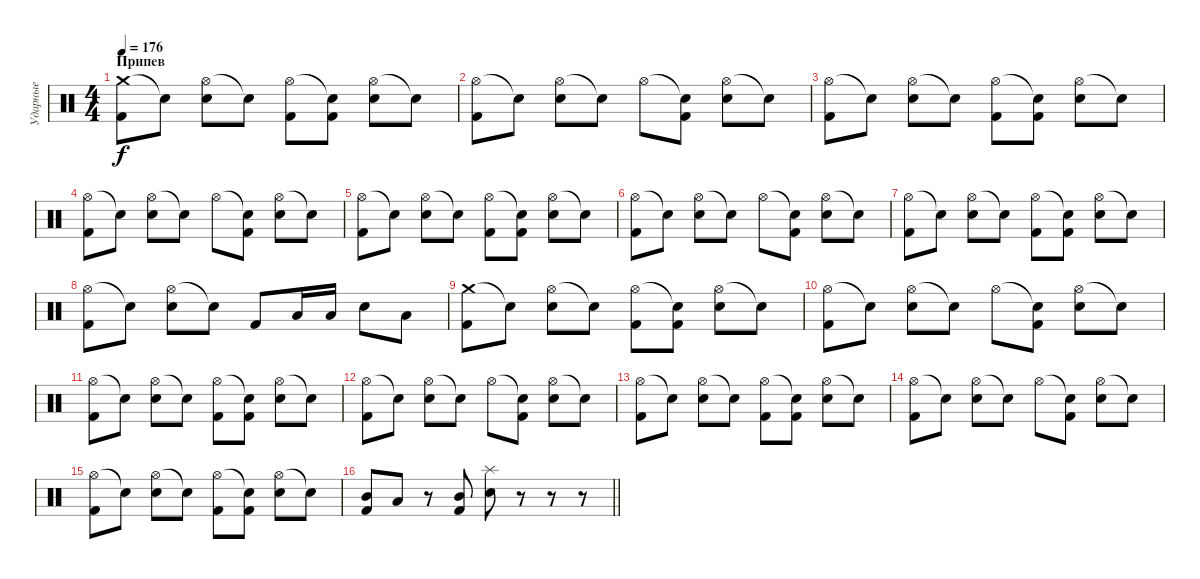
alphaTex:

\track ("Ударные" "Ударные") {instrument percussion}
\staff {score}
\articulation defaults
\ts (4 4)
\section ("" "Припев")
\tempo 176
\clef neutral
\ks c
("Crash medium (hit)" "Kick (hit) 2").8{dy f} "Snare (hit)"{t}.8 ("Hi-Hat (open)" "Snare (hit) 2").8 "Snare (hit)"{t}.8 ("Hi-Hat (open)" "Kick (hit) 2").8 ("Snare (hit)"{t} "Kick (hit) 2").8 ("Hi-Hat (open)" "Snare (hit) 2").8 "Snare (hit)"{t}.8 |
("Hi-Hat (open)" "Kick (hit) 2").8 "Snare (hit)"{t}.8 ("Hi-Hat (open)" "Snare (hit) 2").8 "Snare (hit)"{t}.8 "Hi-Hat (open)".8 ("Snare (hit)"{t} "Kick (hit) 2").8 ("Hi-Hat (open)" "Snare (hit) 2").8 "Snare (hit)"{t}.8 |
("Hi-Hat (open)" "Kick (hit) 2").8 "Snare (hit)"{t}.8 ("Hi-Hat (open)" "Snare (hit) 2").8 "Snare (hit)"{t}.8 ("Hi-Hat (open)" "Kick (hit) 2").8 ("Snare (hit)"{t} "Kick (hit) 2").8 ("Hi-Hat (open)" "Snare (hit) 2").8 "Snare (hit)"{t}.8 |
("Hi-Hat (open)" "Kick (hit) 2").8 "Snare (hit)"{t}.8 ("Hi-Hat (open)" "Snare (hit) 2").8 "Snare (hit)"{t}.8 "Hi-Hat (open)".8 ("Snare (hit)"{t} "Kick (hit) 2").8 ("Hi-Hat (open)" "Snare (hit) 2").8 "Snare (hit)"{t}.8 |
("Hi-Hat (open)" "Kick (hit) 2").8 "Snare (hit)"{t}.8 ("Hi-Hat (open)" "Snare (hit) 2").8 "Snare (hit)"{t}.8 ("Hi-Hat (open)" "Kick (hit) 2").8 ("Snare (hit)"{t} "Kick (hit) 2").8 ("Hi-Hat (open)" "Snare (hit) 2").8 "Snare (hit)"{t}.8 |
("Hi-Hat (open)" "Kick (hit) 2").8 "Snare (hit)"{t}.8 ("Hi-Hat (open)" "Snare (hit) 2").8 "Snare (hit)"{t}.8 "Hi-Hat (open)".8 ("Snare (hit)"{t} "Kick (hit) 2").8 ("Hi-Hat (open)" "Snare (hit) 2").8 "Snare (hit)"{t}.8 |
("Hi-Hat (open)" "Kick (hit) 2").8 "Snare (hit)"{t}.8 ("Hi-Hat (open)" "Snare (hit) 2").8 "Snare (hit)"{t}.8 ("Hi-Hat (open)" "Kick (hit) 2").8 ("Snare (hit)"{t} "Kick (hit) 2").8 ("Hi-Hat (open)" "Snare (hit) 2").8 "Snare (hit)"{t}.8 |
("Hi-Hat (open)" "Kick (hit) 2").8 "Snare (hit)"{t}.8 ("Hi-Hat (open)" "Snare (hit) 2").8 "Snare (hit)"{t}.8 "Kick (hit) 2".8 "Low Tom (hit)".16 "Low Tom (hit)".16 "Snare (hit) 2".8 "Low Floor Tom (hit)".8 |
("Crash medium (hit)" "Kick (hit) 2").8 "Snare (hit)"{t}.8 ("Hi-Hat (open)" "Snare (hit) 2").8 "Snare (hit)"{t}.8 ("Hi-Hat (open)" "Kick (hit) 2").8 ("Snare (hit)"{t} "Kick (hit) 2").8 ("Hi-Hat (open)" "Snare (hit) 2").8 "Snare (hit)"{t}.8 |
("Hi-Hat (open)" "Kick (hit) 2").8 "Snare (hit)"{t}.8 ("Hi-Hat (open)" "Snare (hit) 2").8 "Snare (hit)"{t}.8 "Hi-Hat (open)".8 ("Snare (hit)"{t} "Kick (hit) 2").8 ("Hi-Hat (open)" "Snare (hit) 2").8 "Snare (hit)"{t}.8 |
("Hi-Hat (open)" "Kick (hit) 2").8 "Snare (hit)"{t}.8 ("Hi-Hat (open)" "Snare (hit) 2").8 "Snare (hit)"{t}.8 ("Hi-Hat (open)" "Kick (hit) 2").8 ("Snare (hit)"{t} "Kick (hit) 2").8 ("Hi-Hat (open)" "Snare (hit) 2").8 "Snare (hit)"{t}.8 |
("Hi-Hat (open)" "Kick (hit) 2").8 "Snare (hit)"{t}.8 ("Hi-Hat (open)" "Snare (hit) 2").8 "Snare (hit)"{t}.8 "Hi-Hat (open)".8 ("Snare (hit)"{t} "Kick (hit) 2").8 ("Hi-Hat (open)" "Snare (hit) 2").8 "Snare (hit)"{t}.8 |
("Hi-Hat (open)" "Kick (hit) 2").8 "Snare (hit)"{t}.8 ("Hi-Hat (open)" "Snare (hit) 2").8 "Snare (hit)"{t}.8 ("Hi-Hat (open)" "Kick (hit) 2").8 ("Snare (hit)"{t} "Kick (hit) 2").8 ("Hi-Hat (open)" "Snare (hit) 2").8 "Snare (hit)"{t}.8 |
("Hi-Hat (open)" "Kick (hit) 2").8 "Snare (hit)"{t}.8 ("Hi-Hat (open)" "Snare (hit) 2").8 "Snare (hit)"{t}.8 "Hi-Hat (open)".8 ("Snare (hit)"{t} "Kick (hit) 2").8 ("Hi-Hat (open)" "Snare (hit) 2").8 "Snare (hit)"{t}.8 |
("Hi-Hat (open)" "Kick (hit) 2").8 "Snare (hit)"{t}.8 ("Hi-Hat (open)" "Snare (hit) 2").8 "Snare (hit)"{t}.8 ("Hi-Hat (open)" "Kick (hit) 2").8 ("Snare (hit)"{t} "Kick (hit) 2").8 ("Hi-Hat (open)" "Snare (hit) 2").8 "Snare (hit)"{t}.8 |
\barLineRight lightlight
("Mid Tom (hit)" "Kick (hit) 2").8 "Low Tom (hit)".8 r.8 ("Mid Tom (hit)" "Kick (hit) 2").8 ("Splash (hit)" "Snare (hit) 2").8 r.8 r.8 r.8
